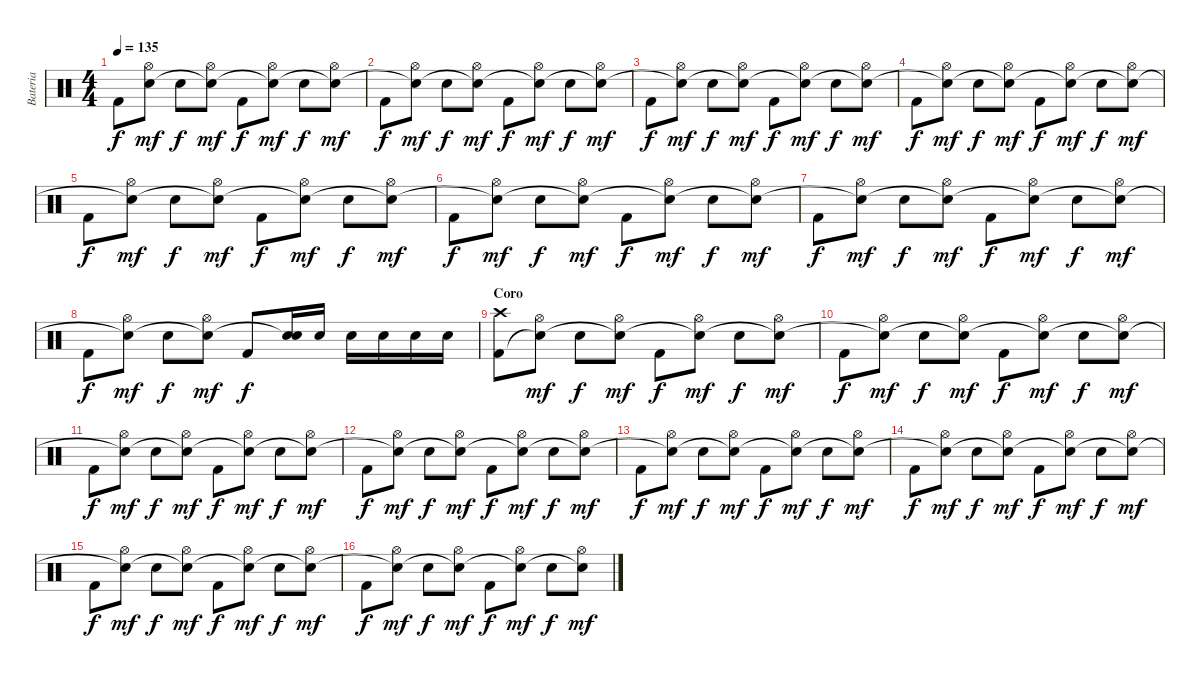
\track ("Bateria" "Bateria") {instrument percussion}
\staff {score}
\articulation defaults
\ts (4 4)
\tempo 135
\clef neutral
\ks c "Kick (hit) 2".8{dy f}
("Hi-Hat (open)" "Snare (hit)"{t}).8{dy mf} "Electric Snare (hit)".8{dy f} ("Hi-Hat (open)" "Snare (hit)"{t}).8{dy mf} "Kick (hit) 2".8{dy f} ("Hi-Hat (open)" "Snare (hit)"{t}).8{dy mf} "Electric Snare (hit)".8{dy f} ("Hi-Hat (open)" "Snare (hit)"{t}).8{dy mf} |
"Kick (hit) 2".8{dy f} ("Hi-Hat (open)" "Snare (hit)"{t}).8{dy mf} "Electric Snare (hit)".8{dy f} ("Hi-Hat (open)" "Snare (hit)"{t}).8{dy mf} "Kick (hit) 2".8{dy f} ("Hi-Hat (open)" "Snare (hit)"{t}).8{dy mf} "Electric Snare (hit)".8{dy f} ("Hi-Hat (open)" "Snare (hit)"{t}).8{dy mf} |
"Kick (hit) 2".8{dy f} ("Hi-Hat (open)" "Snare (hit)"{t}).8{dy mf} "Electric Snare (hit)".8{dy f} ("Hi-Hat (open)" "Snare (hit)"{t}).8{dy mf} "Kick (hit) 2".8{dy f} ("Hi-Hat (open)" "Snare (hit)"{t}).8{dy mf} "Electric Snare (hit)".8{dy f} ("Hi-Hat (open)" "Snare (hit)"{t}).8{dy mf} |
"Kick (hit) 2".8{dy f} ("Hi-Hat (open)" "Snare (hit)"{t}).8{dy mf} "Electric Snare (hit)".8{dy f} ("Hi-Hat (open)" "Snare (hit)"{t}).8{dy mf} "Kick (hit) 2".8{dy f} ("Hi-Hat (open)" "Snare (hit)"{t}).8{dy mf} "Electric Snare (hit)".8{dy f} ("Hi-Hat (open)" "Snare (hit)"{t}).8{dy mf} |
"Kick (hit) 2".8{dy f} ("Hi-Hat (open)" "Snare (hit)"{t}).8{dy mf} "Electric Snare (hit)".8{dy f} ("Hi-Hat (open)" "Snare (hit)"{t}).8{dy mf} "Kick (hit) 2".8{dy f} ("Hi-Hat (open)" "Snare (hit)"{t}).8{dy mf} "Electric Snare (hit)".8{dy f} ("Hi-Hat (open)" "Snare (hit)"{t}).8{dy mf} |
"Kick (hit) 2".8{dy f} ("Hi-Hat (open)" "Snare (hit)"{t}).8{dy mf} "Electric Snare (hit)".8{dy f} ("Hi-Hat (open)" "Snare (hit)"{t}).8{dy mf} "Kick (hit) 2".8{dy f} ("Hi-Hat (open)" "Snare (hit)"{t}).8{dy mf} "Electric Snare (hit)".8{dy f} ("Hi-Hat (open)" "Snare (hit)"{t}).8{dy mf} |
"Kick (hit) 2".8{dy f} ("Hi-Hat (open)" "Snare (hit)"{t}).8{dy mf} "Electric Snare (hit)".8{dy f} ("Hi-Hat (open)" "Snare (hit)"{t}).8{dy mf} "Kick (hit) 2".8{dy f} ("Hi-Hat (open)" "Snare (hit)"{t}).8{dy mf} "Electric Snare (hit)".8{dy f} ("Hi-Hat (open)" "Snare (hit)"{t}).8{dy mf} |
"Kick (hit) 2".8{dy f} ("Hi-Hat (open)" "Snare (hit)"{t}).8{dy mf} "Electric Snare (hit)".8{dy f} ("Hi-Hat (open)" "Snare (hit)"{t}).8{dy mf} "Kick (hit) 2".8{dy f} ("Electric Snare (hit)" "Snare (hit)"{t}).16 "Electric Snare (hit)".16 "Electric Snare (hit)".16 "Electric Snare (hit)".16 "Electric Snare (hit)".16 "Electric Snare (hit)".16 |
\section ("" "Coro")
("Crash high (hit)" "Kick (hit) 2").8 ("Hi-Hat (open)" "Snare (hit)"{t}).8{dy mf} "Electric Snare (hit)".8{dy f} ("Hi-Hat (open)" "Snare (hit)"{t}).8{dy mf} "Kick (hit) 2".8{dy f} ("Hi-Hat (open)" "Snare (hit)"{t}).8{dy mf} "Electric Snare (hit)".8{dy f} ("Hi-Hat (open)" "Snare (hit)"{t}).8{dy mf} |
"Kick (hit) 2".8{dy f} ("Hi-Hat (open)" "Snare (hit)"{t}).8{dy mf} "Electric Snare (hit)".8{dy f} ("Hi-Hat (open)" "Snare (hit)"{t}).8{dy mf} "Kick (hit) 2".8{dy f} ("Hi-Hat (open)" "Snare (hit)"{t}).8{dy mf} "Electric Snare (hit)".8{dy f} ("Hi-Hat (open)" "Snare (hit)"{t}).8{dy mf} |
"Kick (hit) 2".8{dy f} ("Hi-Hat (open)" "Snare (hit)"{t}).8{dy mf} "Electric Snare (hit)".8{dy f} ("Hi-Hat (open)" "Snare (hit)"{t}).8{dy mf} "Kick (hit) 2".8{dy f} ("Hi-Hat (open)" "Snare (hit)"{t}).8{dy mf} "Electric Snare (hit)".8{dy f} ("Hi-Hat (open)" "Snare (hit)"{t}).8{dy mf} |
"Kick (hit) 2".8{dy f} ("Hi-Hat (open)" "Snare (hit)"{t}).8{dy mf} "Electric Snare (hit)".8{dy f} ("Hi-Hat (open)" "Snare (hit)"{t}).8{dy mf} "Kick (hit) 2".8{dy f} ("Hi-Hat (open)" "Snare (hit)"{t}).8{dy mf} "Electric Snare (hit)".8{dy f} ("Hi-Hat (open)" "Snare (hit)"{t}).8{dy mf} |
"Kick (hit) 2".8{dy f} ("Hi-Hat (open)" "Snare (hit)"{t}).8{dy mf} "Electric Snare (hit)".8{dy f} ("Hi-Hat (open)" "Snare (hit)"{t}).8{dy mf} "Kick (hit) 2".8{dy f} ("Hi-Hat (open)" "Snare (hit)"{t}).8{dy mf} "Electric Snare (hit)".8{dy f} ("Hi-Hat (open)" "Snare (hit)"{t}).8{dy mf} |
"Kick (hit) 2".8{dy f} ("Hi-Hat (open)" "Snare (hit)"{t}).8{dy mf} "Electric Snare (hit)".8{dy f} ("Hi-Hat (open)" "Snare (hit)"{t}).8{dy mf} "Kick (hit) 2".8{dy f} ("Hi-Hat (open)" "Snare (hit)"{t}).8{dy mf} "Electric Snare (hit)".8{dy f} ("Hi-Hat (open)" "Snare (hit)"{t}).8{dy mf} |
"Kick (hit) 2".8{dy f} ("Hi-Hat (open)" "Snare (hit)"{t}).8{dy mf} "Electric Snare (hit)".8{dy f} ("Hi-Hat (open)" "Snare (hit)"{t}).8{dy mf} "Kick (hit) 2".8{dy f} ("Hi-Hat (open)" "Snare (hit)"{t}).8{dy mf} "Electric Snare (hit)".8{dy f} ("Hi-Hat (open)" "Snare (hit)"{t}).8{dy mf} |
"Kick (hit) 2".8{dy f} ("Hi-Hat (open)" "Snare (hit)"{t}).8{dy mf} "Electric Snare (hit)".8{dy f} ("Hi-Hat (open)" "Snare (hit)"{t}).8{dy mf} "Kick (hit) 2".8{dy f} ("Hi-Hat (open)" "Snare (hit)"{t}).8{dy mf} "Electric Snare (hit)".8{dy f} ("Hi-Hat (open)" "Snare (hit)"{t}).8{dy mf}
